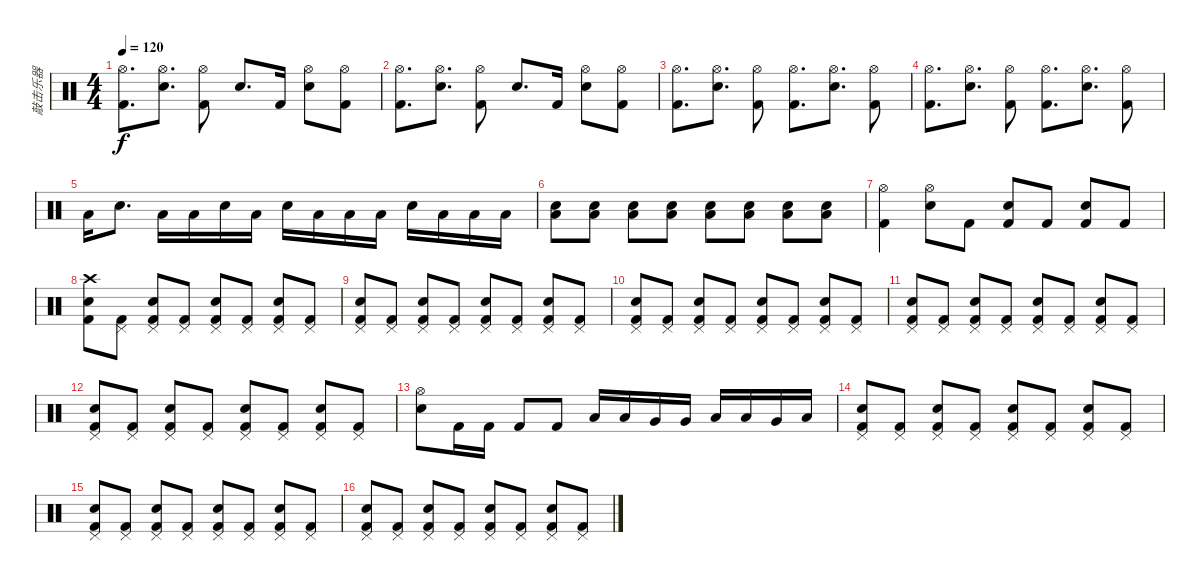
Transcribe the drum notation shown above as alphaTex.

\track ("敲击乐器" "敲击乐器") {instrument percussion}
\staff {score}
\articulation defaults
\ts (4 4)
\tempo 120
\clef neutral
\ks c
("Hi-Hat (open)" "Kick (hit) 2").8{d dy f} ("Hi-Hat (open)" "Snare (hit) 2").8{d} ("Hi-Hat (open)" "Kick (hit) 2").8 "Snare (hit) 2".8{d} "Kick (hit) 2".16 ("Hi-Hat (open)" "Snare (hit) 2").8 ("Hi-Hat (open)" "Kick (hit) 2").8 |
("Hi-Hat (open)" "Kick (hit) 2").8{d} ("Hi-Hat (open)" "Snare (hit) 2").8{d} ("Hi-Hat (open)" "Kick (hit) 2").8 "Snare (hit) 2".8{d} "Kick (hit) 2".16 ("Hi-Hat (open)" "Snare (hit) 2").8 ("Hi-Hat (open)" "Kick (hit) 2").8 |
("Hi-Hat (open)" "Kick (hit) 2").8{d} ("Hi-Hat (open)" "Snare (hit) 2").8{d} ("Hi-Hat (open)" "Kick (hit) 2").8 ("Hi-Hat (open)" "Kick (hit) 2").8{d} ("Hi-Hat (open)" "Snare (hit) 2").8{d} ("Hi-Hat (open)" "Kick (hit) 2").8 |
("Hi-Hat (open)" "Kick (hit) 2").8{d} ("Hi-Hat (open)" "Snare (hit) 2").8{d} ("Hi-Hat (open)" "Kick (hit) 2").8 ("Hi-Hat (open)" "Kick (hit) 2").8{d} ("Hi-Hat (open)" "Snare (hit) 2").8{d} ("Hi-Hat (open)" "Kick (hit) 2").8 |
"Low Floor Tom (hit)".16 "Snare (hit) 2".8{d} "Low Floor Tom (hit)".16 "Low Floor Tom (hit)".16 "Snare (hit) 2".16 "Low Floor Tom (hit)".16 "Snare (hit) 2".16 "Low Floor Tom (hit)".16 "Low Floor Tom (hit)".16 "Low Floor Tom (hit)".16 "Snare (hit) 2".16 "Low Floor Tom (hit)".16 "Low Floor Tom (hit)".16 "Low Floor Tom (hit)".16 |
("Snare (hit) 2" "Low Floor Tom (hit)").8 ("Snare (hit) 2" "Low Floor Tom (hit)").8 ("Snare (hit) 2" "Low Floor Tom (hit)").8 ("Snare (hit) 2" "Low Floor Tom (hit)").8 ("Snare (hit) 2" "Low Floor Tom (hit)").8 ("Snare (hit) 2" "Low Floor Tom (hit)").8 ("Snare (hit) 2" "Low Floor Tom (hit)").8 ("Snare (hit) 2" "Low Floor Tom (hit)").8 |
("Hi-Hat (open)" "Kick (hit) 2").4 ("Hi-Hat (open)" "Snare (hit) 2").8 "Kick (hit) 2".8 ("Snare (hit) 2" "Kick (hit) 2").8 "Kick (hit) 2".8 ("Snare (hit) 2" "Kick (hit) 2").8 "Kick (hit) 2".8 |
("Crash high (hit)" "Snare (hit) 2" "Kick (hit) 2").8 ("Pedal Hi-Hat (hit)" "Kick (hit) 2").8 ("Pedal Hi-Hat (hit)" "Snare (hit) 2" "Kick (hit) 2").8 ("Pedal Hi-Hat (hit)" "Kick (hit) 2").8 ("Pedal Hi-Hat (hit)" "Snare (hit) 2" "Kick (hit) 2").8 ("Pedal Hi-Hat (hit)" "Kick (hit) 2").8 ("Pedal Hi-Hat (hit)" "Snare (hit) 2" "Kick (hit) 2").8 ("Pedal Hi-Hat (hit)" "Kick (hit) 2").8 |
("Pedal Hi-Hat (hit)" "Snare (hit) 2" "Kick (hit) 2").8 ("Pedal Hi-Hat (hit)" "Kick (hit) 2").8 ("Pedal Hi-Hat (hit)" "Snare (hit) 2" "Kick (hit) 2").8 ("Pedal Hi-Hat (hit)" "Kick (hit) 2").8 ("Pedal Hi-Hat (hit)" "Snare (hit) 2" "Kick (hit) 2").8 ("Pedal Hi-Hat (hit)" "Kick (hit) 2").8 ("Pedal Hi-Hat (hit)" "Snare (hit) 2" "Kick (hit) 2").8 ("Pedal Hi-Hat (hit)" "Kick (hit) 2").8 |
("Pedal Hi-Hat (hit)" "Snare (hit) 2" "Kick (hit) 2").8 ("Pedal Hi-Hat (hit)" "Kick (hit) 2").8 ("Pedal Hi-Hat (hit)" "Snare (hit) 2" "Kick (hit) 2").8 ("Pedal Hi-Hat (hit)" "Kick (hit) 2").8 ("Pedal Hi-Hat (hit)" "Snare (hit) 2" "Kick (hit) 2").8 ("Pedal Hi-Hat (hit)" "Kick (hit) 2").8 ("Pedal Hi-Hat (hit)" "Snare (hit) 2" "Kick (hit) 2").8 ("Pedal Hi-Hat (hit)" "Kick (hit) 2").8 |
("Pedal Hi-Hat (hit)" "Snare (hit) 2" "Kick (hit) 2").8 ("Pedal Hi-Hat (hit)" "Kick (hit) 2").8 ("Pedal Hi-Hat (hit)" "Snare (hit) 2" "Kick (hit) 2").8 ("Pedal Hi-Hat (hit)" "Kick (hit) 2").8 ("Pedal Hi-Hat (hit)" "Snare (hit) 2" "Kick (hit) 2").8 ("Pedal Hi-Hat (hit)" "Kick (hit) 2").8 ("Pedal Hi-Hat (hit)" "Snare (hit) 2" "Kick (hit) 2").8 ("Pedal Hi-Hat (hit)" "Kick (hit) 2").8 |
("Pedal Hi-Hat (hit)" "Snare (hit) 2" "Kick (hit) 2").8 ("Pedal Hi-Hat (hit)" "Kick (hit) 2").8 ("Pedal Hi-Hat (hit)" "Snare (hit) 2" "Kick (hit) 2").8 ("Pedal Hi-Hat (hit)" "Kick (hit) 2").8 ("Pedal Hi-Hat (hit)" "Snare (hit) 2" "Kick (hit) 2").8 ("Pedal Hi-Hat (hit)" "Kick (hit) 2").8 ("Pedal Hi-Hat (hit)" "Snare (hit) 2" "Kick (hit) 2").8 ("Pedal Hi-Hat (hit)" "Kick (hit) 2").8 |
("Hi-Hat (open)" "Snare (hit) 2").8 "Kick (hit) 2".16 "Kick (hit) 2".16 "Kick (hit) 2".8 "Kick (hit) 2".8 "Low Tom (hit)".16 "Low Tom (hit)".16 "Very Low Tom (hit)".16 "Very Low Tom (hit)".16 "Low Tom (hit)".16 "Low Tom (hit)".16 "Very Low Tom (hit)".16 "Low Floor Tom (hit)".16 |
("Pedal Hi-Hat (hit)" "Snare (hit) 2" "Kick (hit) 2").8 ("Pedal Hi-Hat (hit)" "Kick (hit) 2").8 ("Pedal Hi-Hat (hit)" "Snare (hit) 2" "Kick (hit) 2").8 ("Pedal Hi-Hat (hit)" "Kick (hit) 2").8 ("Pedal Hi-Hat (hit)" "Snare (hit) 2" "Kick (hit) 2").8 ("Pedal Hi-Hat (hit)" "Kick (hit) 2").8 ("Pedal Hi-Hat (hit)" "Snare (hit) 2" "Kick (hit) 2").8 ("Pedal Hi-Hat (hit)" "Kick (hit) 2").8 |
("Pedal Hi-Hat (hit)" "Snare (hit) 2" "Kick (hit) 2").8 ("Pedal Hi-Hat (hit)" "Kick (hit) 2").8 ("Pedal Hi-Hat (hit)" "Snare (hit) 2" "Kick (hit) 2").8 ("Pedal Hi-Hat (hit)" "Kick (hit) 2").8 ("Pedal Hi-Hat (hit)" "Snare (hit) 2" "Kick (hit) 2").8 ("Pedal Hi-Hat (hit)" "Kick (hit) 2").8 ("Pedal Hi-Hat (hit)" "Snare (hit) 2" "Kick (hit) 2").8 ("Pedal Hi-Hat (hit)" "Kick (hit) 2").8 |
("Pedal Hi-Hat (hit)" "Snare (hit) 2" "Kick (hit) 2").8 ("Pedal Hi-Hat (hit)" "Kick (hit) 2").8 ("Pedal Hi-Hat (hit)" "Snare (hit) 2" "Kick (hit) 2").8 ("Pedal Hi-Hat (hit)" "Kick (hit) 2").8 ("Pedal Hi-Hat (hit)" "Snare (hit) 2" "Kick (hit) 2").8 ("Pedal Hi-Hat (hit)" "Kick (hit) 2").8 ("Pedal Hi-Hat (hit)" "Snare (hit) 2" "Kick (hit) 2").8 ("Pedal Hi-Hat (hit)" "Kick (hit) 2").8
